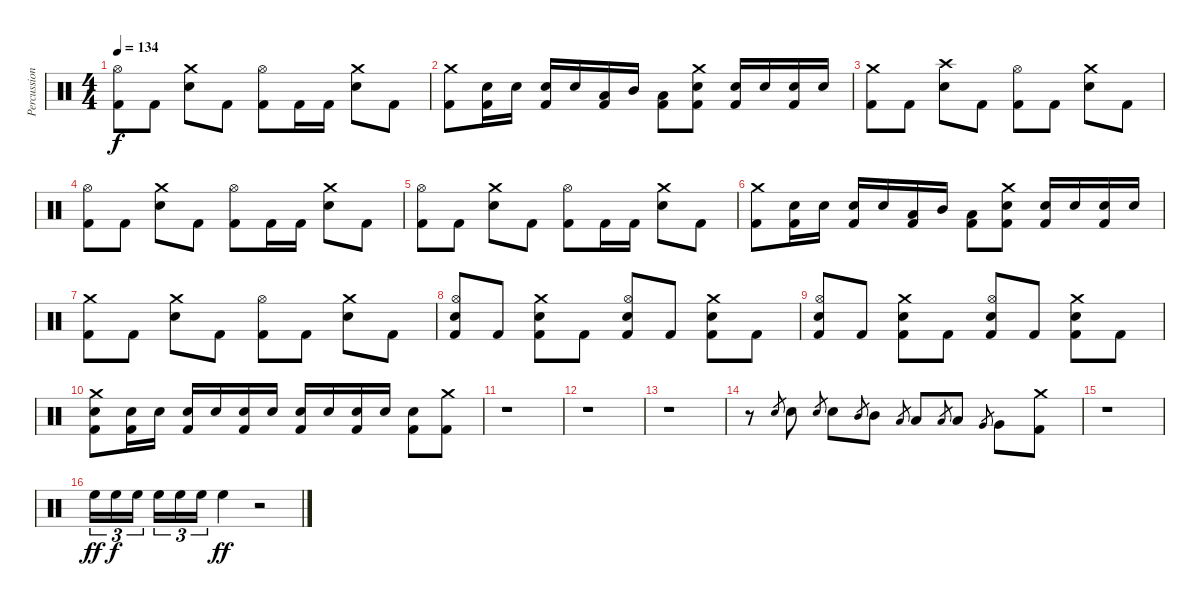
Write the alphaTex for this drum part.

\track ("Percussion" "Percussion") {instrument percussion}
\staff {score}
\articulation defaults
\ts (4 4)
\tempo 134
\clef neutral
\ks c
("Kick (hit) 2" "Hi-Hat (open)").8{dy f} "Kick (hit) 2".8 ("Electric Snare (hit)" "Crash medium (hit)").8 "Kick (hit) 2".8 ("Kick (hit) 2" "Hi-Hat (open)").8 "Kick (hit) 2".16 "Kick (hit) 2".16 ("Electric Snare (hit)" "Crash medium (hit)").8 "Kick (hit) 2".8 |
("Kick (hit) 2" "Crash medium (hit)").8 ("Kick (hit) 2" "Electric Snare (hit)").16 "Electric Snare (hit)".16 ("Kick (hit) 2" "Electric Snare (hit)").16 "Electric Snare (hit)".16 ("Kick (hit) 2" "Low Tom (hit)").16 "Mid Tom (hit)".16 ("Kick (hit) 2" "Low Tom (hit)").8 ("Kick (hit) 2" "Electric Snare (hit)" "Crash medium (hit)").8 ("Kick (hit) 2" "Electric Snare (hit)").16 "Electric Snare (hit)".16 ("Kick (hit) 2" "Electric Snare (hit)").16 "Electric Snare (hit)".16 |
("Kick (hit) 2" "Crash medium (hit)").8 "Kick (hit) 2".8 ("Electric Snare (hit)" "Crash high (hit)").8 "Kick (hit) 2".8 ("Kick (hit) 2" "Hi-Hat (open)").8 "Kick (hit) 2".8 ("Electric Snare (hit)" "Crash medium (hit)").8 "Kick (hit) 2".8 |
("Kick (hit) 2" "Hi-Hat (open)").8 "Kick (hit) 2".8 ("Electric Snare (hit)" "Crash medium (hit)").8 "Kick (hit) 2".8 ("Kick (hit) 2" "Hi-Hat (open)").8 "Kick (hit) 2".16 "Kick (hit) 2".16 ("Electric Snare (hit)" "Crash medium (hit)").8 "Kick (hit) 2".8 |
("Kick (hit) 2" "Hi-Hat (open)").8 "Kick (hit) 2".8 ("Electric Snare (hit)" "Crash medium (hit)").8 "Kick (hit) 2".8 ("Kick (hit) 2" "Hi-Hat (open)").8 "Kick (hit) 2".16 "Kick (hit) 2".16 ("Electric Snare (hit)" "Crash medium (hit)").8 "Kick (hit) 2".8 |
("Kick (hit) 2" "Crash medium (hit)").8 ("Kick (hit) 2" "Electric Snare (hit)").16 "Electric Snare (hit)".16 ("Kick (hit) 2" "Electric Snare (hit)").16 "Electric Snare (hit)".16 ("Kick (hit) 2" "Low Tom (hit)").16 "Mid Tom (hit)".16 ("Kick (hit) 2" "Low Tom (hit)").8 ("Kick (hit) 2" "Electric Snare (hit)" "Crash medium (hit)").8 ("Kick (hit) 2" "Electric Snare (hit)").16 "Electric Snare (hit)".16 ("Kick (hit) 2" "Electric Snare (hit)").16 "Electric Snare (hit)".16 |
("Kick (hit) 2" "Crash medium (hit)").8 "Kick (hit) 2".8 ("Electric Snare (hit)" "Crash medium (hit)").8 "Kick (hit) 2".8 ("Kick (hit) 2" "Hi-Hat (open)").8 "Kick (hit) 2".8 ("Electric Snare (hit)" "Crash medium (hit)").8 "Kick (hit) 2".8 |
("Kick (hit) 2" "Electric Snare (hit)" "Hi-Hat (open)").8 "Kick (hit) 2".8 ("Kick (hit) 2" "Electric Snare (hit)" "Crash medium (hit)").8 "Kick (hit) 2".8 ("Kick (hit) 2" "Electric Snare (hit)" "Hi-Hat (open)").8 "Kick (hit) 2".8 ("Kick (hit) 2" "Electric Snare (hit)" "Crash medium (hit)").8 "Kick (hit) 2".8 |
("Kick (hit) 2" "Electric Snare (hit)" "Hi-Hat (open)").8 "Kick (hit) 2".8 ("Kick (hit) 2" "Electric Snare (hit)" "Crash medium (hit)").8 "Kick (hit) 2".8 ("Kick (hit) 2" "Electric Snare (hit)" "Hi-Hat (open)").8 "Kick (hit) 2".8 ("Kick (hit) 2" "Electric Snare (hit)" "Crash medium (hit)").8 "Kick (hit) 2".8 |
("Kick (hit) 2" "Electric Snare (hit)" "Crash medium (hit)").8 ("Kick (hit) 2" "Electric Snare (hit)").16 "Electric Snare (hit)".16 ("Kick (hit) 2" "Electric Snare (hit)").16 "Electric Snare (hit)".16 ("Kick (hit) 2" "Electric Snare (hit)").16 "Electric Snare (hit)".16 ("Kick (hit) 2" "Electric Snare (hit)").16 "Electric Snare (hit)".16 ("Kick (hit) 2" "Electric Snare (hit)").16 "Electric Snare (hit)".16 ("Kick (hit) 2" "Electric Snare (hit)").8 ("Kick (hit) 2" "Crash medium (hit)").8 |
r.1 |
r.1 |
r.1 |
r.8 "Electric Snare (hit)".8{gr} "Electric Snare (hit)".8 "Electric Snare (hit)".8{gr} "Electric Snare (hit)".8 "Mid Tom (hit)".8{gr} "Mid Tom (hit)".8 "Low Tom (hit)".8{gr} "Low Tom (hit)".8 "Low Tom (hit)".8{gr} "Low Tom (hit)".8 "Very Low Tom (hit)".8{gr} "Very Low Tom (hit)".8 ("Kick (hit) 2" "Crash medium (hit)").8 |
r.1 |
"High Floor Tom (hit)".16{tu (3 2) dy ff} "High Floor Tom (hit)".16{tu (3 2) dy f} "High Floor Tom (hit)".16{tu (3 2)} "High Floor Tom (hit)".16{tu (3 2)} "High Floor Tom (hit)".16{tu (3 2)} "High Floor Tom (hit)".16{tu (3 2)} "High Floor Tom (hit)".4{dy ff} r.2
